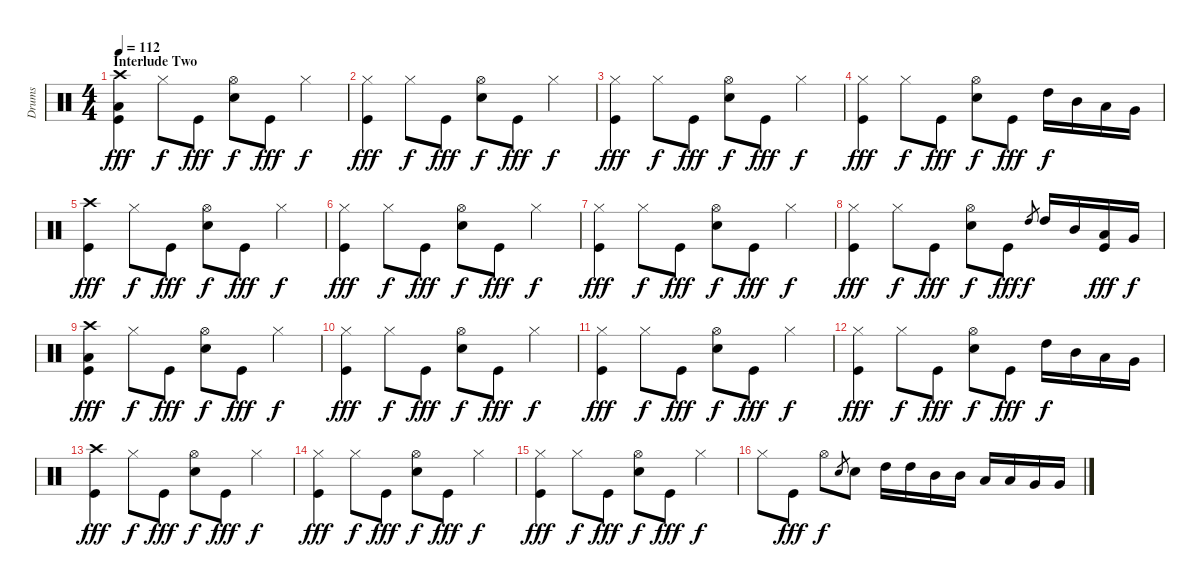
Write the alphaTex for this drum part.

\track ("Drums" "Drums") {instrument percussion}
\staff {score}
\articulation defaults
\ts (4 4)
\section ("" "Interlude Two")
\tempo 112
\clef neutral
\ks c
("Crash high (hit)" "Low Floor Tom (hit)" "Kick (hit)").4{dy fff} "Hi-Hat (closed)".8{dy f} "Kick (hit)".8{dy fff} ("Hi-Hat (open)" "Snare (hit) 2").8{dy f} "Kick (hit)".8{dy fff} "Hi-Hat (closed)".4{dy f} |
("Hi-Hat (closed)" "Kick (hit)").4{dy fff} "Hi-Hat (closed)".8{dy f} "Kick (hit)".8{dy fff} ("Hi-Hat (open)" "Snare (hit) 2").8{dy f} "Kick (hit)".8{dy fff} "Hi-Hat (closed)".4{dy f} |
("Hi-Hat (closed)" "Kick (hit)").4{dy fff} "Hi-Hat (closed)".8{dy f} "Kick (hit)".8{dy fff} ("Hi-Hat (open)" "Snare (hit) 2").8{dy f} "Kick (hit)".8{dy fff} "Hi-Hat (closed)".4{dy f} |
("Hi-Hat (closed)" "Kick (hit)").4{dy fff} "Hi-Hat (closed)".8{dy f} "Kick (hit)".8{dy fff} ("Hi-Hat (open)" "Snare (hit) 2").8{dy f} "Kick (hit)".8{dy fff} "High Tom (hit)".16{dy f} "Mid Tom (hit)".16 "Low Tom (hit)".16 "Very Low Tom (hit)".16 |
("Crash high (hit)" "Kick (hit)").4{dy fff} "Hi-Hat (closed)".8{dy f} "Kick (hit)".8{dy fff} ("Hi-Hat (open)" "Snare (hit) 2").8{dy f} "Kick (hit)".8{dy fff} "Hi-Hat (closed)".4{dy f} |
("Hi-Hat (closed)" "Kick (hit)").4{dy fff} "Hi-Hat (closed)".8{dy f} "Kick (hit)".8{dy fff} ("Hi-Hat (open)" "Snare (hit) 2").8{dy f} "Kick (hit)".8{dy fff} "Hi-Hat (closed)".4{dy f} |
("Hi-Hat (closed)" "Kick (hit)").4{dy fff} "Hi-Hat (closed)".8{dy f} "Kick (hit)".8{dy fff} ("Hi-Hat (open)" "Snare (hit) 2").8{dy f} "Kick (hit)".8{dy fff} "Hi-Hat (closed)".4{dy f} |
("Hi-Hat (closed)" "Kick (hit)").4{dy fff} "Hi-Hat (closed)".8{dy f} "Kick (hit)".8{dy fff} ("Hi-Hat (open)" "Snare (hit) 2").8{dy f} "Kick (hit)".8{dy fff} "High Tom (hit)".8{gr dy f} "High Tom (hit)".16 "Mid Tom (hit)".16 ("Low Tom (hit)" "Kick (hit)").16{dy fff} "Very Low Tom (hit)".16{dy f} |
("Crash high (hit)" "Low Floor Tom (hit)" "Kick (hit)").4{dy fff} "Hi-Hat (closed)".8{dy f} "Kick (hit)".8{dy fff} ("Hi-Hat (open)" "Snare (hit) 2").8{dy f} "Kick (hit)".8{dy fff} "Hi-Hat (closed)".4{dy f} |
("Hi-Hat (closed)" "Kick (hit)").4{dy fff} "Hi-Hat (closed)".8{dy f} "Kick (hit)".8{dy fff} ("Hi-Hat (open)" "Snare (hit) 2").8{dy f} "Kick (hit)".8{dy fff} "Hi-Hat (closed)".4{dy f} |
("Hi-Hat (closed)" "Kick (hit)").4{dy fff} "Hi-Hat (closed)".8{dy f} "Kick (hit)".8{dy fff} ("Hi-Hat (open)" "Snare (hit) 2").8{dy f} "Kick (hit)".8{dy fff} "Hi-Hat (closed)".4{dy f} |
("Hi-Hat (closed)" "Kick (hit)").4{dy fff} "Hi-Hat (closed)".8{dy f} "Kick (hit)".8{dy fff} ("Hi-Hat (open)" "Snare (hit) 2").8{dy f} "Kick (hit)".8{dy fff} "High Tom (hit)".16{dy f} "Mid Tom (hit)".16 "Low Tom (hit)".16 "Very Low Tom (hit)".16 |
("Crash high (hit)" "Kick (hit)").4{dy fff} "Hi-Hat (closed)".8{dy f} "Kick (hit)".8{dy fff} ("Hi-Hat (open)" "Snare (hit) 2").8{dy f} "Kick (hit)".8{dy fff} "Hi-Hat (closed)".4{dy f} |
("Hi-Hat (closed)" "Kick (hit)").4{dy fff} "Hi-Hat (closed)".8{dy f} "Kick (hit)".8{dy fff} ("Hi-Hat (open)" "Snare (hit) 2").8{dy f} "Kick (hit)".8{dy fff} "Hi-Hat (closed)".4{dy f} |
("Hi-Hat (closed)" "Kick (hit)").4{dy fff} "Hi-Hat (closed)".8{dy f} "Kick (hit)".8{dy fff} ("Hi-Hat (open)" "Snare (hit) 2").8{dy f} "Kick (hit)".8{dy fff} "Hi-Hat (closed)".4{dy f} |
"Hi-Hat (closed)".8 "Kick (hit)".8{dy fff} "Hi-Hat (open)".8{dy f} "Snare (hit) 2".8{gr} "Snare (hit) 2".8 "High Tom (hit)".16 "High Tom (hit)".16 "Mid Tom (hit)".16 "Mid Tom (hit)".16 "Low Tom (hit)".16 "Low Tom (hit)".16 "Very Low Tom (hit)".16 "Very Low Tom (hit)".16
